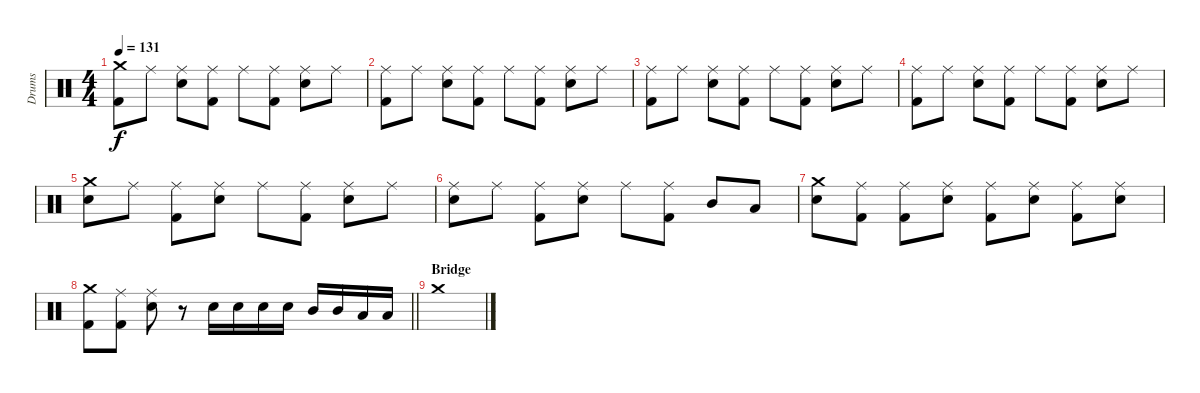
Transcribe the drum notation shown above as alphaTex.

\track ("Drums" "Drums") {instrument percussion}
\staff {score}
\articulation defaults
\ts (4 4)
\tempo 131
\clef neutral
\ks c
("Crash medium (hit)" "Kick (hit) 2").8{dy f} "Ride (middle)".8 ("Ride (middle)" "Electric Snare (hit)").8 ("Ride (middle)" "Kick (hit) 2").8 "Ride (middle)".8 ("Ride (middle)" "Kick (hit) 2").8 ("Ride (middle)" "Electric Snare (hit)").8 "Ride (middle)".8 |
("Ride (middle)" "Kick (hit) 2").8 "Ride (middle)".8 ("Ride (middle)" "Electric Snare (hit)").8 ("Ride (middle)" "Kick (hit) 2").8 "Ride (middle)".8 ("Ride (middle)" "Kick (hit) 2").8 ("Ride (middle)" "Electric Snare (hit)").8 "Ride (middle)".8 |
("Ride (middle)" "Kick (hit) 2").8 "Ride (middle)".8 ("Ride (middle)" "Electric Snare (hit)").8 ("Ride (middle)" "Kick (hit) 2").8 "Ride (middle)".8 ("Ride (middle)" "Kick (hit) 2").8 ("Ride (middle)" "Electric Snare (hit)").8 "Ride (middle)".8 |
("Ride (middle)" "Kick (hit) 2").8 "Ride (middle)".8 ("Ride (middle)" "Electric Snare (hit)").8 ("Ride (middle)" "Kick (hit) 2").8 "Ride (middle)".8 ("Ride (middle)" "Kick (hit) 2").8 ("Ride (middle)" "Electric Snare (hit)").8 "Ride (middle)".8 |
("Crash medium (hit)" "Electric Snare (hit)").8 "Ride (middle)".8 ("Ride (middle)" "Kick (hit) 2").8 ("Ride (middle)" "Electric Snare (hit)").8 "Ride (middle)".8 ("Ride (middle)" "Kick (hit) 2").8 ("Ride (middle)" "Electric Snare (hit)").8 "Ride (middle)".8 |
("Ride (middle)" "Electric Snare (hit)").8 "Ride (middle)".8 ("Ride (middle)" "Kick (hit) 2").8 ("Ride (middle)" "Electric Snare (hit)").8 "Ride (middle)".8 ("Ride (middle)" "Kick (hit) 2").8 "Mid Tom (hit)".8 "Low Tom (hit)".8 |
("Crash medium (hit)" "Electric Snare (hit)").8 ("Ride (middle)" "Kick (hit) 2").8 ("Ride (middle)" "Kick (hit) 2").8 ("Ride (middle)" "Electric Snare (hit)").8 ("Ride (middle)" "Kick (hit) 2").8 ("Ride (middle)" "Electric Snare (hit)").8 ("Ride (middle)" "Kick (hit) 2").8 ("Ride (middle)" "Electric Snare (hit)").8 |
\barLineRight lightlight
("Crash medium (hit)" "Kick (hit) 2").8 ("Ride (middle)" "Kick (hit) 2").8 ("Ride (middle)" "Electric Snare (hit)").8 r.8 "Electric Snare (hit)".16 "Electric Snare (hit)".16 "Electric Snare (hit)".16 "Electric Snare (hit)".16 "Mid Tom (hit)".16 "Mid Tom (hit)".16 "Low Tom (hit)".16 "Low Tom (hit)".16 |
\section ("" "Bridge")
"Crash medium (hit)".1
